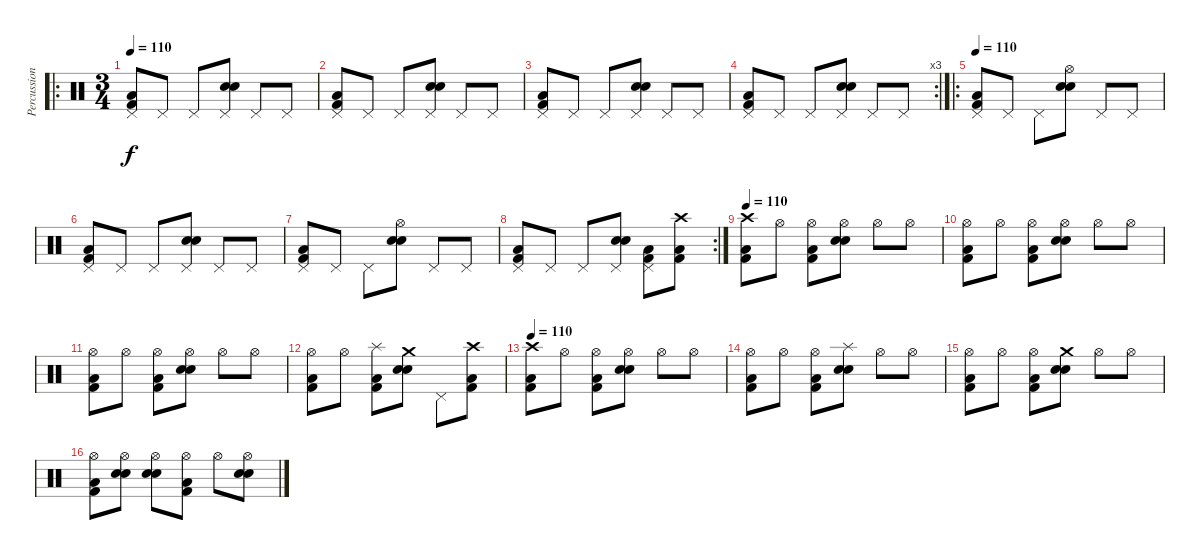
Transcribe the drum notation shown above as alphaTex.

\track ("Percussions" "Percussion") {instrument percussion}
\staff {score}
\articulation defaults
\ro
\ts (3 4)
\tempo 110
\clef neutral
\ks c
("Pedal Hi-Hat (hit)" "Kick (hit) 2" "Low Floor Tom (hit)").8{dy f} "Pedal Hi-Hat (hit)".8 "Pedal Hi-Hat (hit)".8 ("Pedal Hi-Hat (hit)" "Snare (hit) 2" "Electric Snare (hit)").8 "Pedal Hi-Hat (hit)".8 "Pedal Hi-Hat (hit)".8 |
("Pedal Hi-Hat (hit)" "Kick (hit) 2" "Low Floor Tom (hit)").8 "Pedal Hi-Hat (hit)".8 "Pedal Hi-Hat (hit)".8 ("Pedal Hi-Hat (hit)" "Snare (hit) 2" "Electric Snare (hit)").8 "Pedal Hi-Hat (hit)".8 "Pedal Hi-Hat (hit)".8 |
("Pedal Hi-Hat (hit)" "Kick (hit) 2" "Low Floor Tom (hit)").8 "Pedal Hi-Hat (hit)".8 "Pedal Hi-Hat (hit)".8 ("Pedal Hi-Hat (hit)" "Snare (hit) 2" "Electric Snare (hit)").8 "Pedal Hi-Hat (hit)".8 "Pedal Hi-Hat (hit)".8 |
\rc 3
("Pedal Hi-Hat (hit)" "Kick (hit) 2" "Low Floor Tom (hit)").8 "Pedal Hi-Hat (hit)".8 "Pedal Hi-Hat (hit)".8 ("Pedal Hi-Hat (hit)" "Snare (hit) 2" "Electric Snare (hit)").8 "Pedal Hi-Hat (hit)".8 "Pedal Hi-Hat (hit)".8 |
\ro
\tempo 110
("Pedal Hi-Hat (hit)" "Kick (hit) 2" "Low Floor Tom (hit)").8 "Pedal Hi-Hat (hit)".8 "Pedal Hi-Hat (hit)".8 ("Hi-Hat (open)" "Snare (hit) 2" "Electric Snare (hit)").8 "Pedal Hi-Hat (hit)".8 "Pedal Hi-Hat (hit)".8 |
("Pedal Hi-Hat (hit)" "Kick (hit) 2" "Low Floor Tom (hit)").8 "Pedal Hi-Hat (hit)".8 "Pedal Hi-Hat (hit)".8 ("Pedal Hi-Hat (hit)" "Snare (hit) 2" "Electric Snare (hit)").8 "Pedal Hi-Hat (hit)".8 "Pedal Hi-Hat (hit)".8 |
("Pedal Hi-Hat (hit)" "Kick (hit) 2" "Low Floor Tom (hit)").8 "Pedal Hi-Hat (hit)".8 "Pedal Hi-Hat (hit)".8 ("Hi-Hat (open)" "Snare (hit) 2" "Electric Snare (hit)").8 "Pedal Hi-Hat (hit)".8 "Pedal Hi-Hat (hit)".8 |
\rc 2
("Pedal Hi-Hat (hit)" "Kick (hit) 2" "Low Floor Tom (hit)").8 "Pedal Hi-Hat (hit)".8 "Pedal Hi-Hat (hit)".8 ("Pedal Hi-Hat (hit)" "Snare (hit) 2" "Electric Snare (hit)").8 ("Pedal Hi-Hat (hit)" "Kick (hit) 2" "Low Floor Tom (hit)").8 ("Crash high (hit)" "Kick (hit) 2" "Low Floor Tom (hit)").8 |
\tempo 110
("Crash high (hit)" "Kick (hit) 2" "Low Floor Tom (hit)").8 "Hi-Hat (open)".8 ("Hi-Hat (open)" "Kick (hit) 2" "Low Floor Tom (hit)").8 ("Hi-Hat (open)" "Snare (hit) 2" "Electric Snare (hit)").8 "Hi-Hat (open)".8 "Hi-Hat (open)".8 |
("Hi-Hat (open)" "Kick (hit) 2" "Low Floor Tom (hit)").8 "Hi-Hat (open)".8 ("Hi-Hat (open)" "Kick (hit) 2" "Low Floor Tom (hit)").8 ("Hi-Hat (open)" "Snare (hit) 2" "Electric Snare (hit)").8 "Hi-Hat (open)".8 "Hi-Hat (open)".8 |
("Hi-Hat (open)" "Kick (hit) 2" "Low Floor Tom (hit)").8 "Hi-Hat (open)".8 ("Hi-Hat (open)" "Kick (hit) 2" "Low Floor Tom (hit)").8 ("Hi-Hat (open)" "Snare (hit) 2" "Electric Snare (hit)").8 "Hi-Hat (open)".8 "Hi-Hat (open)".8 |
("Hi-Hat (open)" "Kick (hit) 2" "Low Floor Tom (hit)").8 "Hi-Hat (open)".8 ("Splash (hit)" "Kick (hit) 2" "Low Floor Tom (hit)").8 ("Crash medium (hit)" "Snare (hit) 2" "Electric Snare (hit)").8 "Pedal Hi-Hat (hit)".8 ("Crash high (hit)" "Kick (hit) 2" "Low Floor Tom (hit)").8 |
\tempo 110
("Crash high (hit)" "Kick (hit) 2" "Low Floor Tom (hit)").8 "Hi-Hat (open)".8 ("Hi-Hat (open)" "Kick (hit) 2" "Low Floor Tom (hit)").8 ("Hi-Hat (open)" "Snare (hit) 2" "Electric Snare (hit)").8 "Hi-Hat (open)".8 "Hi-Hat (open)".8 |
("Hi-Hat (open)" "Kick (hit) 2" "Low Floor Tom (hit)").8 "Hi-Hat (open)".8 ("Hi-Hat (open)" "Kick (hit) 2" "Low Floor Tom (hit)").8 ("Splash (hit)" "Snare (hit) 2" "Electric Snare (hit)").8 "Hi-Hat (open)".8 "Hi-Hat (open)".8 |
("Hi-Hat (open)" "Kick (hit) 2" "Low Floor Tom (hit)").8 "Hi-Hat (open)".8 ("Hi-Hat (open)" "Kick (hit) 2" "Low Floor Tom (hit)").8 ("Crash medium (hit)" "Snare (hit) 2" "Electric Snare (hit)").8 "Hi-Hat (open)".8 "Hi-Hat (open)".8 |
("Hi-Hat (open)" "Kick (hit) 2" "Low Floor Tom (hit)").8 ("Hi-Hat (open)" "Snare (hit) 2" "Electric Snare (hit)").8 ("Hi-Hat (open)" "Snare (hit) 2" "Electric Snare (hit)").8 ("Hi-Hat (open)" "Kick (hit) 2" "Low Floor Tom (hit)").8 "Hi-Hat (open)".8 ("Hi-Hat (open)" "Snare (hit) 2" "Electric Snare (hit)").8
